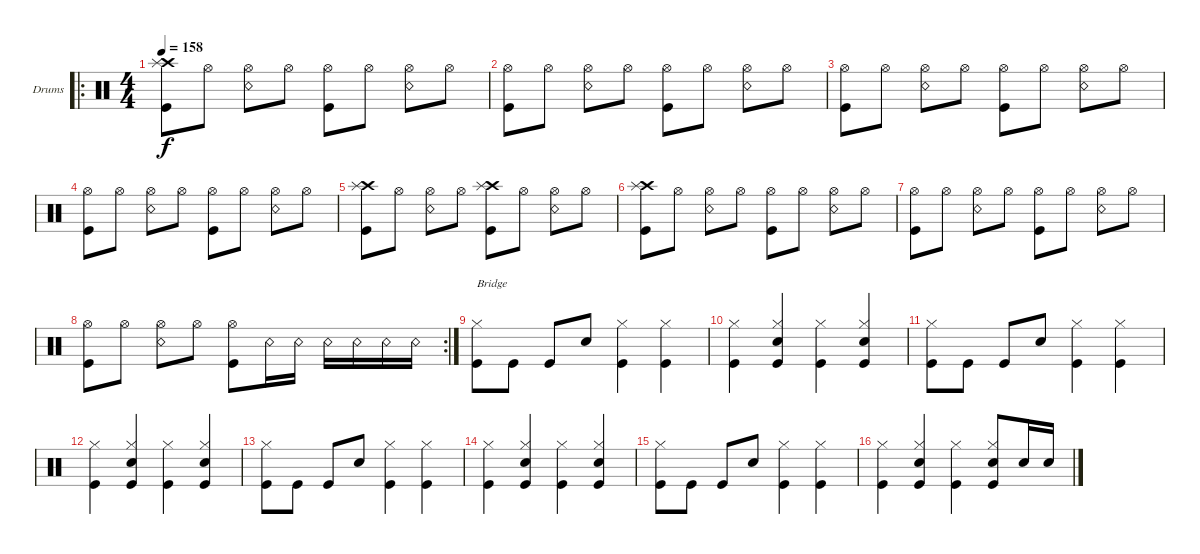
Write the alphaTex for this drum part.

\bracketExtendMode groupsimilarinstruments
\firstSystemTrackNameOrientation horizontal
\otherSystemsTrackNameOrientation horizontal
\track ("Drumkit" "Drums") {instrument percussion}
\staff {score}
\articulation defaults
\ro
\ts (4 4)
\tempo 158
\clef neutral
\ks c
("Kick (hit)" "Crash high (hit)" "Splash (hit)").8{dy f} "Hi-Hat (open)".8 ("Hi-Hat (open)" "Snare (rim shot)").8 "Hi-Hat (open)".8 ("Hi-Hat (open)" "Kick (hit)").8 "Hi-Hat (open)".8 ("Hi-Hat (open)" "Snare (rim shot)").8 "Hi-Hat (open)".8 |
("Hi-Hat (open)" "Kick (hit)").8 "Hi-Hat (open)".8 ("Hi-Hat (open)" "Snare (rim shot)").8 "Hi-Hat (open)".8 ("Hi-Hat (open)" "Kick (hit)").8 "Hi-Hat (open)".8 ("Hi-Hat (open)" "Snare (rim shot)").8 "Hi-Hat (open)".8 |
("Hi-Hat (open)" "Kick (hit)").8 "Hi-Hat (open)".8 ("Hi-Hat (open)" "Snare (rim shot)").8 "Hi-Hat (open)".8 ("Hi-Hat (open)" "Kick (hit)").8 "Hi-Hat (open)".8 ("Hi-Hat (open)" "Snare (rim shot)").8 "Hi-Hat (open)".8 |
("Hi-Hat (open)" "Kick (hit)").8 "Hi-Hat (open)".8 ("Hi-Hat (open)" "Snare (rim shot)").8 "Hi-Hat (open)".8 ("Hi-Hat (open)" "Kick (hit)").8 "Hi-Hat (open)".8 ("Hi-Hat (open)" "Snare (rim shot)").8 "Hi-Hat (open)".8 |
("Kick (hit)" "Crash high (hit)" "Splash (hit)").8 "Hi-Hat (open)".8 ("Hi-Hat (open)" "Snare (rim shot)").8 "Hi-Hat (open)".8 ("Kick (hit)" "Crash high (hit)" "Splash (hit)").8 "Hi-Hat (open)".8 ("Hi-Hat (open)" "Snare (rim shot)").8 "Hi-Hat (open)".8 |
("Kick (hit)" "Crash high (hit)" "Splash (hit)").8 "Hi-Hat (open)".8 ("Hi-Hat (open)" "Snare (rim shot)").8 "Hi-Hat (open)".8 ("Hi-Hat (open)" "Kick (hit)").8 "Hi-Hat (open)".8 ("Hi-Hat (open)" "Snare (rim shot)").8 "Hi-Hat (open)".8 |
("Hi-Hat (open)" "Kick (hit)").8 "Hi-Hat (open)".8 ("Hi-Hat (open)" "Snare (rim shot)").8 "Hi-Hat (open)".8 ("Hi-Hat (open)" "Kick (hit)").8 "Hi-Hat (open)".8 ("Hi-Hat (open)" "Snare (rim shot)").8 "Hi-Hat (open)".8 |
\rc 2
("Hi-Hat (open)" "Kick (hit)").8 "Hi-Hat (open)".8 ("Hi-Hat (open)" "Snare (rim shot)").8 "Hi-Hat (open)".8 ("Hi-Hat (open)" "Kick (hit)").8 "Snare (rim shot)".16 "Snare (rim shot)".16 "Snare (rim shot)".16 "Snare (rim shot)".16 "Snare (rim shot)".16 "Snare (rim shot)".16 |
("Hi-Hat (closed)" "Kick (hit)").8{txt "Bridge"} "Kick (hit)".8 "Kick (hit)".8 "Snare (hit) 2".8 ("Hi-Hat (closed)" "Kick (hit)").4 ("Hi-Hat (closed)" "Kick (hit)").4 |
("Hi-Hat (closed)" "Kick (hit)").4 ("Hi-Hat (closed)" "Snare (hit) 2" "Kick (hit)").4 ("Hi-Hat (closed)" "Kick (hit)").4 ("Hi-Hat (closed)" "Snare (hit) 2" "Kick (hit)").4 |
("Hi-Hat (closed)" "Kick (hit)").8 "Kick (hit)".8 "Kick (hit)".8 "Snare (hit) 2".8 ("Hi-Hat (closed)" "Kick (hit)").4 ("Hi-Hat (closed)" "Kick (hit)").4 |
("Hi-Hat (closed)" "Kick (hit)").4 ("Hi-Hat (closed)" "Snare (hit) 2" "Kick (hit)").4 ("Hi-Hat (closed)" "Kick (hit)").4 ("Hi-Hat (closed)" "Snare (hit) 2" "Kick (hit)").4 |
("Hi-Hat (closed)" "Kick (hit)").8 "Kick (hit)".8 "Kick (hit)".8 "Snare (hit) 2".8 ("Hi-Hat (closed)" "Kick (hit)").4 ("Hi-Hat (closed)" "Kick (hit)").4 |
("Hi-Hat (closed)" "Kick (hit)").4 ("Hi-Hat (closed)" "Snare (hit) 2" "Kick (hit)").4 ("Hi-Hat (closed)" "Kick (hit)").4 ("Hi-Hat (closed)" "Snare (hit) 2" "Kick (hit)").4 |
("Hi-Hat (closed)" "Kick (hit)").8 "Kick (hit)".8 "Kick (hit)".8 "Snare (hit) 2".8 ("Hi-Hat (closed)" "Kick (hit)").4 ("Hi-Hat (closed)" "Kick (hit)").4 |
("Hi-Hat (closed)" "Kick (hit)").4 ("Hi-Hat (closed)" "Snare (hit) 2" "Kick (hit)").4 ("Hi-Hat (closed)" "Kick (hit)").4 ("Hi-Hat (closed)" "Snare (hit) 2" "Kick (hit)").8 "Snare (hit) 2".16 "Snare (hit) 2".16
